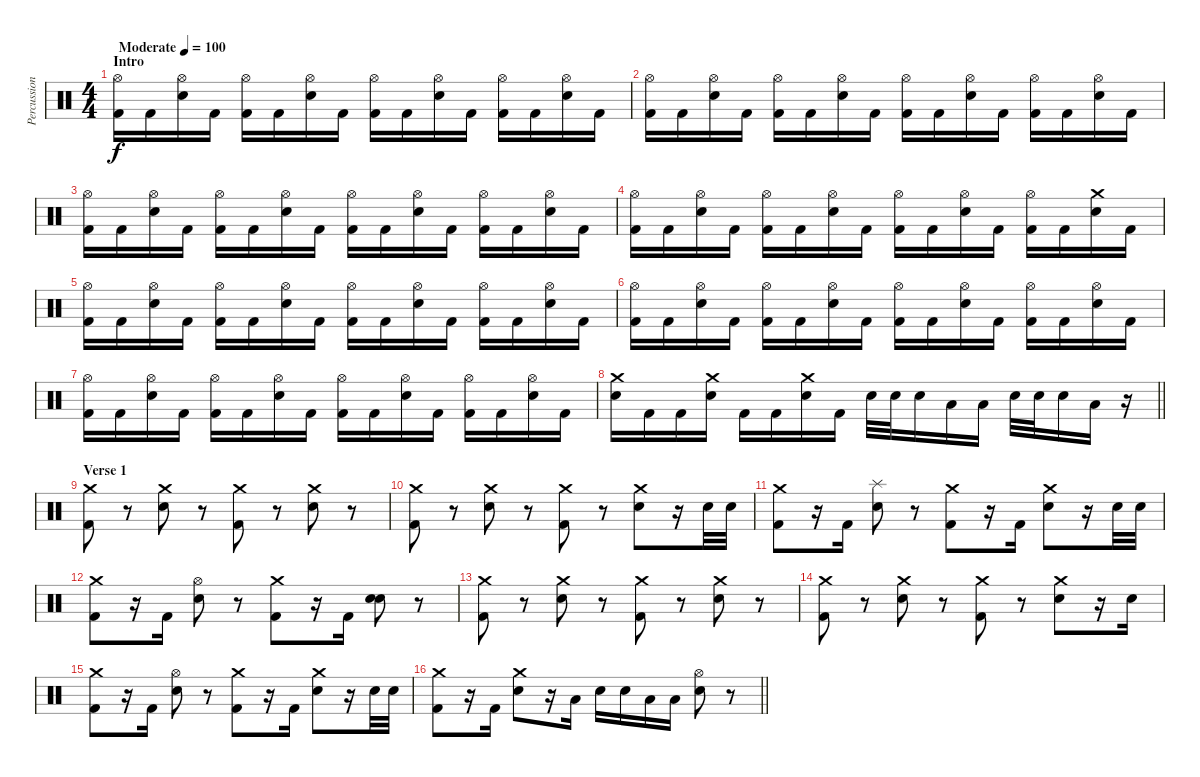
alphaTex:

\track ("Percussion" "Percussion") {instrument percussion}
\staff {score}
\articulation defaults
\ts (4 4)
\section ("" "Intro")
\tempo (100 "Moderate")
\clef neutral
\ks c
("Hi-Hat (open)" "Kick (hit) 2").16{dy f} "Kick (hit) 2".16 ("Hi-Hat (open)" "Snare (hit) 2").16 "Kick (hit) 2".16 ("Hi-Hat (open)" "Kick (hit) 2").16 "Kick (hit) 2".16 ("Hi-Hat (open)" "Snare (hit) 2").16 "Kick (hit) 2".16 ("Hi-Hat (open)" "Kick (hit) 2").16 "Kick (hit) 2".16 ("Hi-Hat (open)" "Snare (hit) 2").16 "Kick (hit) 2".16 ("Hi-Hat (open)" "Kick (hit) 2").16 "Kick (hit) 2".16 ("Hi-Hat (open)" "Snare (hit) 2").16 "Kick (hit) 2".16 |
("Hi-Hat (open)" "Kick (hit) 2").16 "Kick (hit) 2".16 ("Hi-Hat (open)" "Snare (hit) 2").16 "Kick (hit) 2".16 ("Hi-Hat (open)" "Kick (hit) 2").16 "Kick (hit) 2".16 ("Hi-Hat (open)" "Snare (hit) 2").16 "Kick (hit) 2".16 ("Hi-Hat (open)" "Kick (hit) 2").16 "Kick (hit) 2".16 ("Hi-Hat (open)" "Snare (hit) 2").16 "Kick (hit) 2".16 ("Hi-Hat (open)" "Kick (hit) 2").16 "Kick (hit) 2".16 ("Hi-Hat (open)" "Snare (hit) 2").16 "Kick (hit) 2".16 |
("Hi-Hat (open)" "Kick (hit) 2").16 "Kick (hit) 2".16 ("Hi-Hat (open)" "Snare (hit) 2").16 "Kick (hit) 2".16 ("Hi-Hat (open)" "Kick (hit) 2").16 "Kick (hit) 2".16 ("Hi-Hat (open)" "Snare (hit) 2").16 "Kick (hit) 2".16 ("Hi-Hat (open)" "Kick (hit) 2").16 "Kick (hit) 2".16 ("Hi-Hat (open)" "Snare (hit) 2").16 "Kick (hit) 2".16 ("Hi-Hat (open)" "Kick (hit) 2").16 "Kick (hit) 2".16 ("Hi-Hat (open)" "Snare (hit) 2").16 "Kick (hit) 2".16 |
("Hi-Hat (open)" "Kick (hit) 2").16 "Kick (hit) 2".16 ("Hi-Hat (open)" "Snare (hit) 2").16 "Kick (hit) 2".16 ("Hi-Hat (open)" "Kick (hit) 2").16 "Kick (hit) 2".16 ("Hi-Hat (open)" "Snare (hit) 2").16 "Kick (hit) 2".16 ("Hi-Hat (open)" "Kick (hit) 2").16 "Kick (hit) 2".16 ("Hi-Hat (open)" "Snare (hit) 2").16 "Kick (hit) 2".16 ("Hi-Hat (open)" "Kick (hit) 2").16 "Kick (hit) 2".16 ("Crash medium (hit)" "Snare (hit) 2").16 "Kick (hit) 2".16 |
("Hi-Hat (open)" "Kick (hit) 2").16 "Kick (hit) 2".16 ("Hi-Hat (open)" "Snare (hit) 2").16 "Kick (hit) 2".16 ("Hi-Hat (open)" "Kick (hit) 2").16 "Kick (hit) 2".16 ("Hi-Hat (open)" "Snare (hit) 2").16 "Kick (hit) 2".16 ("Hi-Hat (open)" "Kick (hit) 2").16 "Kick (hit) 2".16 ("Hi-Hat (open)" "Snare (hit) 2").16 "Kick (hit) 2".16 ("Hi-Hat (open)" "Kick (hit) 2").16 "Kick (hit) 2".16 ("Hi-Hat (open)" "Snare (hit) 2").16 "Kick (hit) 2".16 |
("Hi-Hat (open)" "Kick (hit) 2").16 "Kick (hit) 2".16 ("Hi-Hat (open)" "Snare (hit) 2").16 "Kick (hit) 2".16 ("Hi-Hat (open)" "Kick (hit) 2").16 "Kick (hit) 2".16 ("Hi-Hat (open)" "Snare (hit) 2").16 "Kick (hit) 2".16 ("Hi-Hat (open)" "Kick (hit) 2").16 "Kick (hit) 2".16 ("Hi-Hat (open)" "Snare (hit) 2").16 "Kick (hit) 2".16 ("Hi-Hat (open)" "Kick (hit) 2").16 "Kick (hit) 2".16 ("Hi-Hat (open)" "Snare (hit) 2").16 "Kick (hit) 2".16 |
("Hi-Hat (open)" "Kick (hit) 2").16 "Kick (hit) 2".16 ("Hi-Hat (open)" "Snare (hit) 2").16 "Kick (hit) 2".16 ("Hi-Hat (open)" "Kick (hit) 2").16 "Kick (hit) 2".16 ("Hi-Hat (open)" "Snare (hit) 2").16 "Kick (hit) 2".16 ("Hi-Hat (open)" "Kick (hit) 2").16 "Kick (hit) 2".16 ("Hi-Hat (open)" "Snare (hit) 2").16 "Kick (hit) 2".16 ("Hi-Hat (open)" "Kick (hit) 2").16 "Kick (hit) 2".16 ("Hi-Hat (open)" "Snare (hit) 2").16 "Kick (hit) 2".16 |
\barLineRight lightlight
("Crash medium (hit)" "Snare (hit) 2").16 "Kick (hit) 2".16 "Kick (hit) 2".16 ("Crash medium (hit)" "Snare (hit) 2").16 "Kick (hit) 2".16 "Kick (hit) 2".16 ("Crash medium (hit)" "Snare (hit) 2").16 "Kick (hit) 2".16 "Snare (hit) 2".32 "Snare (hit) 2".32 "Snare (hit) 2".16 "Low Tom (hit)".16 "Low Tom (hit)".16 "Snare (hit) 2".32 "Snare (hit) 2".32 "Snare (hit) 2".16 "Low Tom (hit)".16 r.16 |
\section ("" "Verse 1")
("Crash medium (hit)" "Kick (hit) 2").8 r.8 ("Crash medium (hit)" "Snare (hit) 2").8 r.8 ("Crash medium (hit)" "Kick (hit) 2").8 r.8 ("Crash medium (hit)" "Snare (hit) 2").8 r.8 |
("Crash medium (hit)" "Kick (hit) 2").8 r.8 ("Crash medium (hit)" "Snare (hit) 2").8 r.8 ("Crash medium (hit)" "Kick (hit) 2").8 r.8 ("Crash medium (hit)" "Snare (hit) 2").8 r.16 "Snare (hit) 2".32 "Snare (hit) 2".32 |
("Crash medium (hit)" "Kick (hit) 2").8 r.16 "Kick (hit) 2".16 ("Splash (hit)" "Snare (hit) 2").8 r.8 ("Crash medium (hit)" "Kick (hit) 2").8 r.16 "Kick (hit) 2".16 ("Crash medium (hit)" "Snare (hit) 2").8 r.16 "Snare (hit) 2".32 "Snare (hit) 2".32 |
("Crash medium (hit)" "Kick (hit) 2").8 r.16 "Kick (hit) 2".16 ("Hi-Hat (open)" "Snare (hit) 2").8 r.8 ("Crash medium (hit)" "Kick (hit) 2").8 r.16 "Kick (hit) 2".16 ("Snare (hit) 2" "Snare (hit) 2").8 r.8 |
("Crash medium (hit)" "Kick (hit) 2").8 r.8 ("Crash medium (hit)" "Snare (hit) 2").8 r.8 ("Crash medium (hit)" "Kick (hit) 2").8 r.8 ("Crash medium (hit)" "Snare (hit) 2").8 r.8 |
("Crash medium (hit)" "Kick (hit) 2").8 r.8 ("Crash medium (hit)" "Snare (hit) 2").8 r.8 ("Crash medium (hit)" "Kick (hit) 2").8 r.8 ("Crash medium (hit)" "Snare (hit) 2").8 r.16 "Snare (hit) 2".16 |
("Crash medium (hit)" "Kick (hit) 2").8 r.16 "Kick (hit) 2".16 ("Hi-Hat (open)" "Snare (hit) 2").8 r.8 ("Crash medium (hit)" "Kick (hit) 2").8 r.16 "Kick (hit) 2".16 ("Crash medium (hit)" "Snare (hit) 2").8 r.16 "Snare (hit) 2".32 "Snare (hit) 2".32 |
\barLineRight lightlight
("Crash medium (hit)" "Kick (hit) 2").8 r.16 "Kick (hit) 2".16 ("Crash medium (hit)" "Snare (hit) 2").8 r.16 "Low Tom (hit)".16 "Snare (hit) 2".16 "Snare (hit) 2".16 "Low Tom (hit)".16 "Low Tom (hit)".16 ("Hi-Hat (open)" "Snare (hit) 2").8 r.8
